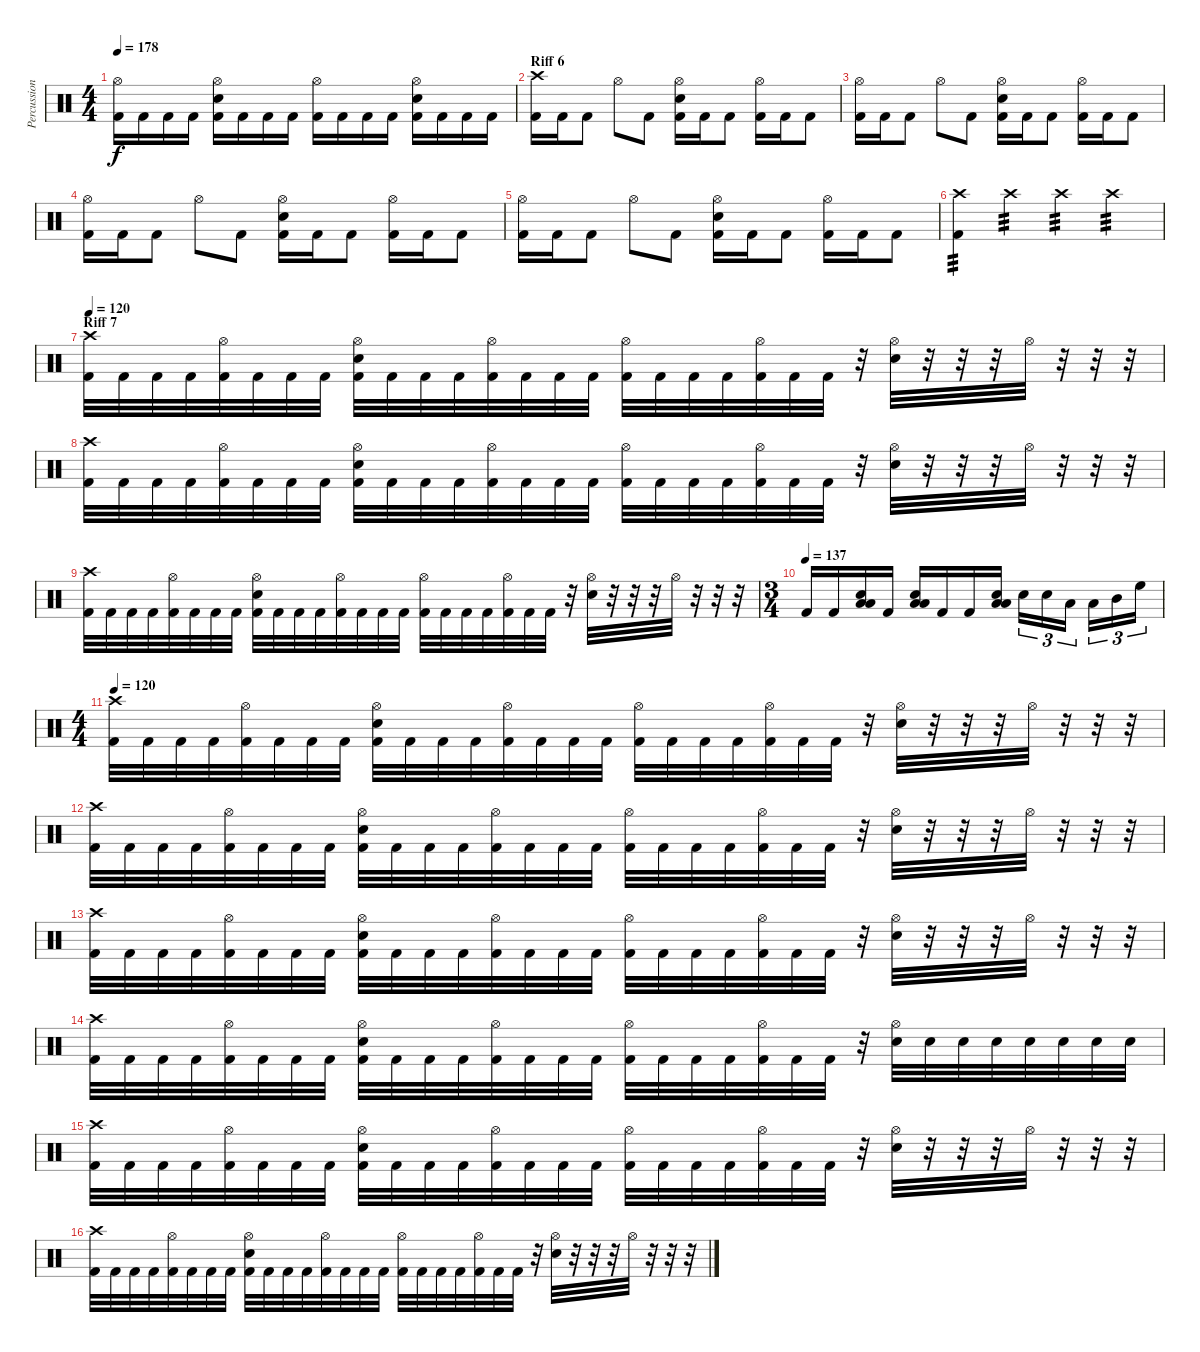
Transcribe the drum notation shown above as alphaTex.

\track ("Percussion" "Percussion") {instrument percussion}
\staff {score}
\articulation defaults
\ts (4 4)
\tempo 178
\clef neutral
\ks c
("Hi-Hat (open)" "Kick (hit) 2").16{dy f} "Kick (hit) 2".16 "Kick (hit) 2".16 "Kick (hit) 2".16 ("Hi-Hat (open)" "Electric Snare (hit)" "Kick (hit) 2").16 "Kick (hit) 2".16 "Kick (hit) 2".16 "Kick (hit) 2".16 ("Hi-Hat (open)" "Kick (hit) 2").16 "Kick (hit) 2".16 "Kick (hit) 2".16 "Kick (hit) 2".16 ("Hi-Hat (open)" "Electric Snare (hit)" "Kick (hit) 2").16 "Kick (hit) 2".16 "Kick (hit) 2".16 "Kick (hit) 2".16 |
\section ("" "Riff 6")
("Crash high (hit)" "Kick (hit) 2").16 "Kick (hit) 2".16 "Kick (hit) 2".8 "Hi-Hat (open)".8 "Kick (hit) 2".8 ("Hi-Hat (open)" "Electric Snare (hit)" "Kick (hit) 2").16 "Kick (hit) 2".16 "Kick (hit) 2".8 ("Hi-Hat (open)" "Kick (hit) 2").16 "Kick (hit) 2".16 "Kick (hit) 2".8 |
("Hi-Hat (open)" "Kick (hit) 2").16 "Kick (hit) 2".16 "Kick (hit) 2".8 "Hi-Hat (open)".8 "Kick (hit) 2".8 ("Hi-Hat (open)" "Electric Snare (hit)" "Kick (hit) 2").16 "Kick (hit) 2".16 "Kick (hit) 2".8 ("Hi-Hat (open)" "Kick (hit) 2").16 "Kick (hit) 2".16 "Kick (hit) 2".8 |
("Hi-Hat (open)" "Kick (hit) 2").16 "Kick (hit) 2".16 "Kick (hit) 2".8 "Hi-Hat (open)".8 "Kick (hit) 2".8 ("Hi-Hat (open)" "Electric Snare (hit)" "Kick (hit) 2").16 "Kick (hit) 2".16 "Kick (hit) 2".8 ("Hi-Hat (open)" "Kick (hit) 2").16 "Kick (hit) 2".16 "Kick (hit) 2".8 |
("Hi-Hat (open)" "Kick (hit) 2").16 "Kick (hit) 2".16 "Kick (hit) 2".8 "Hi-Hat (open)".8 "Kick (hit) 2".8 ("Hi-Hat (open)" "Electric Snare (hit)" "Kick (hit) 2").16 "Kick (hit) 2".16 "Kick (hit) 2".8 ("Hi-Hat (open)" "Kick (hit) 2").16 "Kick (hit) 2".16 "Kick (hit) 2".8 |
("Crash high (hit)" "Kick (hit) 2").4{tp 3 volume 5} "Crash high (hit)".4{tp 3 volume 8} "Crash high (hit)".4{tp 3 volume 11} "Crash high (hit)".4{tp 3 volume 15} |
\section ("" "Riff 7")
\tempo 120
("Crash high (hit)" "Kick (hit) 2").32 "Kick (hit) 2".32 "Kick (hit) 2".32 "Kick (hit) 2".32 ("Hi-Hat (open)" "Kick (hit) 2").32 "Kick (hit) 2".32 "Kick (hit) 2".32 "Kick (hit) 2".32 ("Hi-Hat (open)" "Electric Snare (hit)" "Kick (hit) 2").32 "Kick (hit) 2".32 "Kick (hit) 2".32 "Kick (hit) 2".32 ("Hi-Hat (open)" "Kick (hit) 2").32 "Kick (hit) 2".32 "Kick (hit) 2".32 "Kick (hit) 2".32 ("Hi-Hat (open)" "Kick (hit) 2").32 "Kick (hit) 2".32 "Kick (hit) 2".32 "Kick (hit) 2".32 ("Hi-Hat (open)" "Kick (hit) 2").32 "Kick (hit) 2".32 "Kick (hit) 2".32 r.32 ("Hi-Hat (open)" "Electric Snare (hit)").32 r.32 r.32 r.32 "Hi-Hat (open)".32 r.32 r.32 r.32 |
("Crash high (hit)" "Kick (hit) 2").32 "Kick (hit) 2".32 "Kick (hit) 2".32 "Kick (hit) 2".32 ("Hi-Hat (open)" "Kick (hit) 2").32 "Kick (hit) 2".32 "Kick (hit) 2".32 "Kick (hit) 2".32 ("Hi-Hat (open)" "Electric Snare (hit)" "Kick (hit) 2").32 "Kick (hit) 2".32 "Kick (hit) 2".32 "Kick (hit) 2".32 ("Hi-Hat (open)" "Kick (hit) 2").32 "Kick (hit) 2".32 "Kick (hit) 2".32 "Kick (hit) 2".32 ("Hi-Hat (open)" "Kick (hit) 2").32 "Kick (hit) 2".32 "Kick (hit) 2".32 "Kick (hit) 2".32 ("Hi-Hat (open)" "Kick (hit) 2").32 "Kick (hit) 2".32 "Kick (hit) 2".32 r.32 ("Hi-Hat (open)" "Electric Snare (hit)").32 r.32 r.32 r.32 "Hi-Hat (open)".32 r.32 r.32 r.32 |
("Crash high (hit)" "Kick (hit) 2").32 "Kick (hit) 2".32 "Kick (hit) 2".32 "Kick (hit) 2".32 ("Hi-Hat (open)" "Kick (hit) 2").32 "Kick (hit) 2".32 "Kick (hit) 2".32 "Kick (hit) 2".32 ("Hi-Hat (open)" "Electric Snare (hit)" "Kick (hit) 2").32 "Kick (hit) 2".32 "Kick (hit) 2".32 "Kick (hit) 2".32 ("Hi-Hat (open)" "Kick (hit) 2").32 "Kick (hit) 2".32 "Kick (hit) 2".32 "Kick (hit) 2".32 ("Hi-Hat (open)" "Kick (hit) 2").32 "Kick (hit) 2".32 "Kick (hit) 2".32 "Kick (hit) 2".32 ("Hi-Hat (open)" "Kick (hit) 2").32 "Kick (hit) 2".32 "Kick (hit) 2".32 r.32 ("Hi-Hat (open)" "Electric Snare (hit)").32 r.32 r.32 r.32 "Hi-Hat (open)".32 r.32 r.32 r.32 |
\ts (3 4)
\tempo (137)
"Kick (hit) 2".16 "Kick (hit) 2".16 ("Electric Snare (hit)" "Low Tom (hit)" "Low Floor Tom (hit)").16 "Kick (hit) 2".16 ("Electric Snare (hit)" "Low Tom (hit)" "Low Floor Tom (hit)").16 "Kick (hit) 2".16 "Kick (hit) 2".16 ("Electric Snare (hit)" "Low Tom (hit)" "Low Floor Tom (hit)").16 "Electric Snare (hit)".16{tu (3 2)} "Electric Snare (hit)".16{tu (3 2)} "Low Floor Tom (hit)".16{tu (3 2)} "Low Tom (hit)".16{tu (3 2)} "Mid Tom (hit)".16{tu (3 2)} "High Floor Tom (hit)".16{tu (3 2)} |
\ts (4 4)
\tempo 120
("Crash high (hit)" "Kick (hit) 2").32 "Kick (hit) 2".32 "Kick (hit) 2".32 "Kick (hit) 2".32 ("Hi-Hat (open)" "Kick (hit) 2").32 "Kick (hit) 2".32 "Kick (hit) 2".32 "Kick (hit) 2".32 ("Hi-Hat (open)" "Electric Snare (hit)" "Kick (hit) 2").32 "Kick (hit) 2".32 "Kick (hit) 2".32 "Kick (hit) 2".32 ("Hi-Hat (open)" "Kick (hit) 2").32 "Kick (hit) 2".32 "Kick (hit) 2".32 "Kick (hit) 2".32 ("Hi-Hat (open)" "Kick (hit) 2").32 "Kick (hit) 2".32 "Kick (hit) 2".32 "Kick (hit) 2".32 ("Hi-Hat (open)" "Kick (hit) 2").32 "Kick (hit) 2".32 "Kick (hit) 2".32 r.32 ("Hi-Hat (open)" "Electric Snare (hit)").32 r.32 r.32 r.32 "Hi-Hat (open)".32 r.32 r.32 r.32 |
("Crash high (hit)" "Kick (hit) 2").32 "Kick (hit) 2".32 "Kick (hit) 2".32 "Kick (hit) 2".32 ("Hi-Hat (open)" "Kick (hit) 2").32 "Kick (hit) 2".32 "Kick (hit) 2".32 "Kick (hit) 2".32 ("Hi-Hat (open)" "Electric Snare (hit)" "Kick (hit) 2").32 "Kick (hit) 2".32 "Kick (hit) 2".32 "Kick (hit) 2".32 ("Hi-Hat (open)" "Kick (hit) 2").32 "Kick (hit) 2".32 "Kick (hit) 2".32 "Kick (hit) 2".32 ("Hi-Hat (open)" "Kick (hit) 2").32 "Kick (hit) 2".32 "Kick (hit) 2".32 "Kick (hit) 2".32 ("Hi-Hat (open)" "Kick (hit) 2").32 "Kick (hit) 2".32 "Kick (hit) 2".32 r.32 ("Hi-Hat (open)" "Electric Snare (hit)").32 r.32 r.32 r.32 "Hi-Hat (open)".32 r.32 r.32 r.32 |
("Crash high (hit)" "Kick (hit) 2").32 "Kick (hit) 2".32 "Kick (hit) 2".32 "Kick (hit) 2".32 ("Hi-Hat (open)" "Kick (hit) 2").32 "Kick (hit) 2".32 "Kick (hit) 2".32 "Kick (hit) 2".32 ("Hi-Hat (open)" "Electric Snare (hit)" "Kick (hit) 2").32 "Kick (hit) 2".32 "Kick (hit) 2".32 "Kick (hit) 2".32 ("Hi-Hat (open)" "Kick (hit) 2").32 "Kick (hit) 2".32 "Kick (hit) 2".32 "Kick (hit) 2".32 ("Hi-Hat (open)" "Kick (hit) 2").32 "Kick (hit) 2".32 "Kick (hit) 2".32 "Kick (hit) 2".32 ("Hi-Hat (open)" "Kick (hit) 2").32 "Kick (hit) 2".32 "Kick (hit) 2".32 r.32 ("Hi-Hat (open)" "Electric Snare (hit)").32 r.32 r.32 r.32 "Hi-Hat (open)".32 r.32 r.32 r.32 |
("Crash high (hit)" "Kick (hit) 2").32 "Kick (hit) 2".32 "Kick (hit) 2".32 "Kick (hit) 2".32 ("Hi-Hat (open)" "Kick (hit) 2").32 "Kick (hit) 2".32 "Kick (hit) 2".32 "Kick (hit) 2".32 ("Hi-Hat (open)" "Electric Snare (hit)" "Kick (hit) 2").32 "Kick (hit) 2".32 "Kick (hit) 2".32 "Kick (hit) 2".32 ("Hi-Hat (open)" "Kick (hit) 2").32 "Kick (hit) 2".32 "Kick (hit) 2".32 "Kick (hit) 2".32 ("Hi-Hat (open)" "Kick (hit) 2").32 "Kick (hit) 2".32 "Kick (hit) 2".32 "Kick (hit) 2".32 ("Hi-Hat (open)" "Kick (hit) 2").32 "Kick (hit) 2".32 "Kick (hit) 2".32 r.32 ("Hi-Hat (open)" "Electric Snare (hit)").32 "Electric Snare (hit)".32 "Electric Snare (hit)".32 "Electric Snare (hit)".32 "Electric Snare (hit)".32 "Electric Snare (hit)".32 "Electric Snare (hit)".32 "Electric Snare (hit)".32 |
("Crash high (hit)" "Kick (hit) 2").32 "Kick (hit) 2".32 "Kick (hit) 2".32 "Kick (hit) 2".32 ("Hi-Hat (open)" "Kick (hit) 2").32 "Kick (hit) 2".32 "Kick (hit) 2".32 "Kick (hit) 2".32 ("Hi-Hat (open)" "Electric Snare (hit)" "Kick (hit) 2").32 "Kick (hit) 2".32 "Kick (hit) 2".32 "Kick (hit) 2".32 ("Hi-Hat (open)" "Kick (hit) 2").32 "Kick (hit) 2".32 "Kick (hit) 2".32 "Kick (hit) 2".32 ("Hi-Hat (open)" "Kick (hit) 2").32 "Kick (hit) 2".32 "Kick (hit) 2".32 "Kick (hit) 2".32 ("Hi-Hat (open)" "Kick (hit) 2").32 "Kick (hit) 2".32 "Kick (hit) 2".32 r.32 ("Hi-Hat (open)" "Electric Snare (hit)").32 r.32 r.32 r.32 "Hi-Hat (open)".32 r.32 r.32 r.32 |
("Crash high (hit)" "Kick (hit) 2").32 "Kick (hit) 2".32 "Kick (hit) 2".32 "Kick (hit) 2".32 ("Hi-Hat (open)" "Kick (hit) 2").32 "Kick (hit) 2".32 "Kick (hit) 2".32 "Kick (hit) 2".32 ("Hi-Hat (open)" "Electric Snare (hit)" "Kick (hit) 2").32 "Kick (hit) 2".32 "Kick (hit) 2".32 "Kick (hit) 2".32 ("Hi-Hat (open)" "Kick (hit) 2").32 "Kick (hit) 2".32 "Kick (hit) 2".32 "Kick (hit) 2".32 ("Hi-Hat (open)" "Kick (hit) 2").32 "Kick (hit) 2".32 "Kick (hit) 2".32 "Kick (hit) 2".32 ("Hi-Hat (open)" "Kick (hit) 2").32 "Kick (hit) 2".32 "Kick (hit) 2".32 r.32 ("Hi-Hat (open)" "Electric Snare (hit)").32 r.32 r.32 r.32 "Hi-Hat (open)".32 r.32 r.32 r.32
